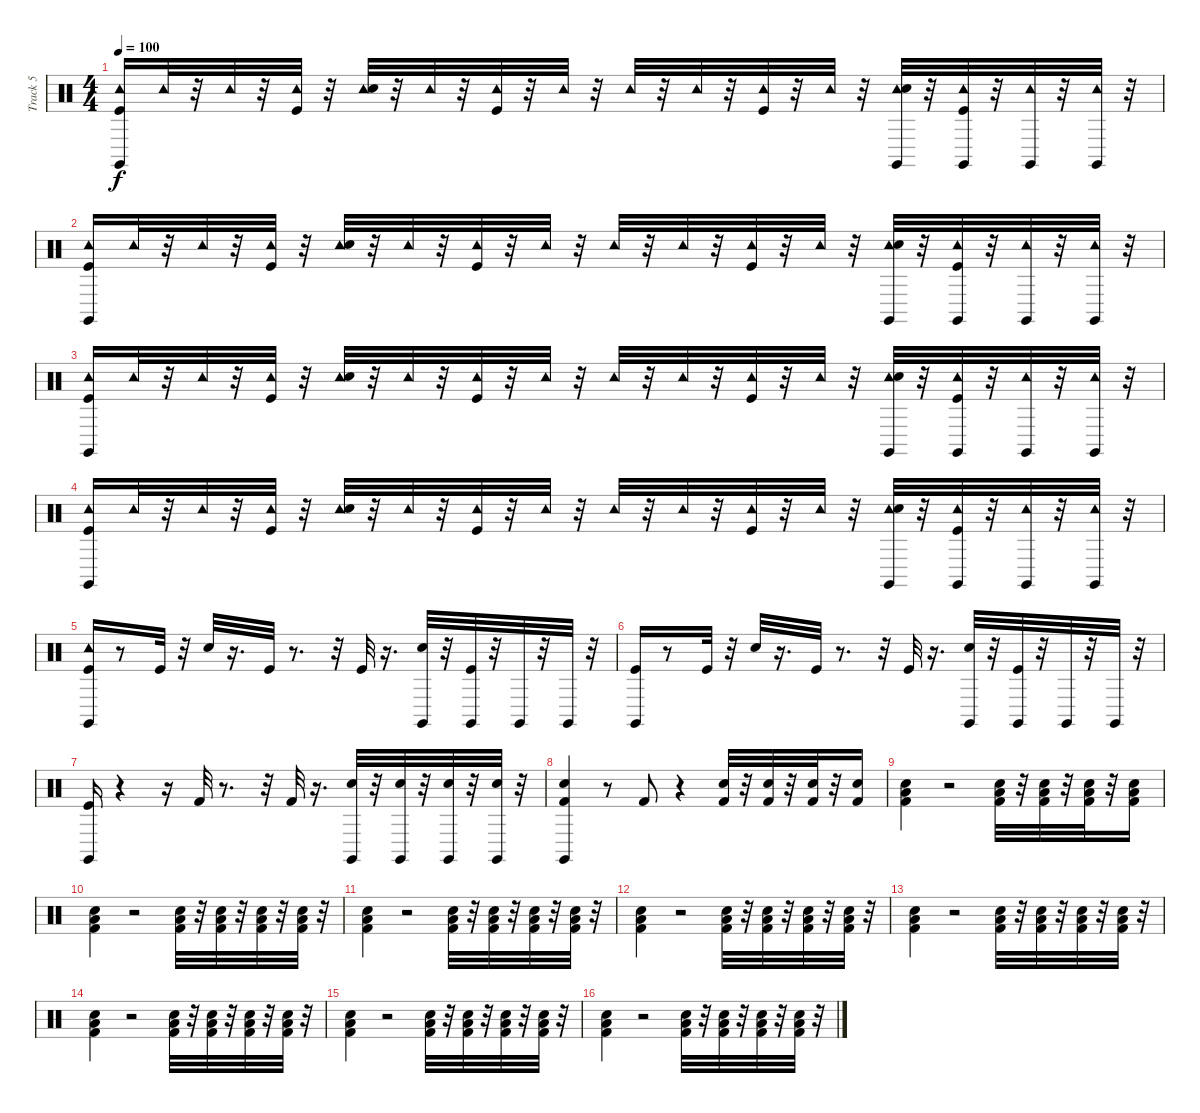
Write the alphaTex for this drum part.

\track ("Track 5" "Track 5") {instrument percussion}
\staff {score}
\articulation defaults
\ts (4 4)
\tempo 100
\clef neutral
\ks c
("Tambourine (hit)" "Claves (hit)" "Kick (hit)").16{dy f} "Tambourine (hit)".32 r.32 "Tambourine (hit)".32 r.32 ("Tambourine (hit)" "Kick (hit)").32 r.32 ("Tambourine (hit)" "Snare (hit) 2").32 r.32 "Tambourine (hit)".32 r.32 ("Tambourine (hit)" "Kick (hit)").32 r.32 "Tambourine (hit)".32 r.32 "Tambourine (hit)".32 r.32 "Tambourine (hit)".32 r.32 ("Tambourine (hit)" "Kick (hit)").32 r.32 "Tambourine (hit)".32 r.32 ("Tambourine (hit)" "Claves (hit)" "Snare (hit) 2").32 r.32 ("Tambourine (hit)" "Claves (hit)" "Kick (hit)").32 r.32 ("Tambourine (hit)" "Claves (hit)").32 r.32 ("Tambourine (hit)" "Claves (hit)").32 r.32 |
("Tambourine (hit)" "Claves (hit)" "Kick (hit)").16 "Tambourine (hit)".32 r.32 "Tambourine (hit)".32 r.32 ("Tambourine (hit)" "Kick (hit)").32 r.32 ("Tambourine (hit)" "Snare (hit) 2").32 r.32 "Tambourine (hit)".32 r.32 ("Tambourine (hit)" "Kick (hit)").32 r.32 "Tambourine (hit)".32 r.32 "Tambourine (hit)".32 r.32 "Tambourine (hit)".32 r.32 ("Tambourine (hit)" "Kick (hit)").32 r.32 "Tambourine (hit)".32 r.32 ("Tambourine (hit)" "Claves (hit)" "Snare (hit) 2").32 r.32 ("Tambourine (hit)" "Claves (hit)" "Kick (hit)").32 r.32 ("Tambourine (hit)" "Claves (hit)").32 r.32 ("Tambourine (hit)" "Claves (hit)").32 r.32 |
("Tambourine (hit)" "Claves (hit)" "Kick (hit)").16 "Tambourine (hit)".32 r.32 "Tambourine (hit)".32 r.32 ("Tambourine (hit)" "Kick (hit)").32 r.32 ("Tambourine (hit)" "Snare (hit) 2").32 r.32 "Tambourine (hit)".32 r.32 ("Tambourine (hit)" "Kick (hit)").32 r.32 "Tambourine (hit)".32 r.32 "Tambourine (hit)".32 r.32 "Tambourine (hit)".32 r.32 ("Tambourine (hit)" "Kick (hit)").32 r.32 "Tambourine (hit)".32 r.32 ("Tambourine (hit)" "Claves (hit)" "Snare (hit) 2").32 r.32 ("Tambourine (hit)" "Claves (hit)" "Kick (hit)").32 r.32 ("Tambourine (hit)" "Claves (hit)").32 r.32 ("Tambourine (hit)" "Claves (hit)").32 r.32 |
("Tambourine (hit)" "Claves (hit)" "Kick (hit)").16 "Tambourine (hit)".32 r.32 "Tambourine (hit)".32 r.32 ("Tambourine (hit)" "Kick (hit)").32 r.32 ("Tambourine (hit)" "Snare (hit) 2").32 r.32 "Tambourine (hit)".32 r.32 ("Tambourine (hit)" "Kick (hit)").32 r.32 "Tambourine (hit)".32 r.32 "Tambourine (hit)".32 r.32 "Tambourine (hit)".32 r.32 ("Tambourine (hit)" "Kick (hit)").32 r.32 "Tambourine (hit)".32 r.32 ("Tambourine (hit)" "Claves (hit)" "Snare (hit) 2").32 r.32 ("Tambourine (hit)" "Claves (hit)" "Kick (hit)").32 r.32 ("Tambourine (hit)" "Claves (hit)").32 r.32 ("Tambourine (hit)" "Claves (hit)").32 r.32 |
("Tambourine (hit)" "Claves (hit)" "Kick (hit)").16 r.8 "Kick (hit)".32 r.32 "Snare (hit) 2".32 r.16{d} "Kick (hit)".32 r.8{d} r.32 "Kick (hit)".32 r.16{d} ("Claves (hit)" "Snare (hit) 2").32 r.32 ("Claves (hit)" "Kick (hit)").32 r.32 "Claves (hit)".32 r.32 "Claves (hit)".32 r.32 |
("Claves (hit)" "Kick (hit)").16 r.8 "Kick (hit)".32 r.32 "Snare (hit) 2".32 r.16{d} "Kick (hit)".32 r.8{d} r.32 "Kick (hit)".32 r.16{d} ("Claves (hit)" "Snare (hit) 2").32 r.32 ("Kick (hit)" "Claves (hit)").32 r.32 "Claves (hit)".32 r.32 "Claves (hit)".32 r.32 |
("Kick (hit)" "Claves (hit)").16 r.4 r.16 "Kick (hit) 2".32 r.8{d} r.32 "Kick (hit) 2".32 r.16{d} ("Claves (hit)" "Snare (hit) 2").32 r.32 ("Snare (hit) 2" "Claves (hit)").32 r.32 ("Snare (hit) 2" "Claves (hit)").32 r.32 ("Snare (hit) 2" "Claves (hit)").32 r.32 |
("Snare (hit) 2" "Claves (hit)" "Kick (hit) 2").4 r.8 "Kick (hit) 2".8 r.4 ("Kick (hit) 2" "Snare (hit) 2").32 r.32 ("Kick (hit) 2" "Snare (hit) 2").32 r.32 ("Kick (hit) 2" "Snare (hit) 2").32 r.32 ("Snare (hit) 2" "Kick (hit) 2").16 |
("Kick (hit) 2" "Low Floor Tom (hit)" "Snare (hit) 2").4 r.2 ("Snare (hit) 2" "Kick (hit) 2" "Low Floor Tom (hit)").32 r.32 ("Snare (hit) 2" "Kick (hit) 2" "Low Floor Tom (hit)").32 r.32 ("Snare (hit) 2" "Kick (hit) 2" "Low Floor Tom (hit)").32 r.32 ("Low Floor Tom (hit)" "Snare (hit) 2" "Kick (hit) 2").16 |
("Snare (hit) 2" "Kick (hit) 2" "Low Floor Tom (hit)").4 r.2 ("Snare (hit) 2" "Kick (hit) 2" "Low Floor Tom (hit)").32 r.32 ("Snare (hit) 2" "Kick (hit) 2" "Low Floor Tom (hit)").32 r.32 ("Snare (hit) 2" "Kick (hit) 2" "Low Floor Tom (hit)").32 r.32 ("Snare (hit) 2" "Kick (hit) 2" "Low Floor Tom (hit)").32 r.32 |
("Snare (hit) 2" "Kick (hit) 2" "Low Floor Tom (hit)").4 r.2 ("Snare (hit) 2" "Kick (hit) 2" "Low Floor Tom (hit)").32 r.32 ("Snare (hit) 2" "Kick (hit) 2" "Low Floor Tom (hit)").32 r.32 ("Snare (hit) 2" "Kick (hit) 2" "Low Floor Tom (hit)").32 r.32 ("Snare (hit) 2" "Kick (hit) 2" "Low Floor Tom (hit)").32 r.32 |
("Snare (hit) 2" "Low Floor Tom (hit)" "Kick (hit) 2").4 r.2 ("Snare (hit) 2" "Kick (hit) 2" "Low Floor Tom (hit)").32 r.32 ("Snare (hit) 2" "Kick (hit) 2" "Low Floor Tom (hit)").32 r.32 ("Snare (hit) 2" "Kick (hit) 2" "Low Floor Tom (hit)").32 r.32 ("Snare (hit) 2" "Kick (hit) 2" "Low Floor Tom (hit)").32 r.32 |
("Kick (hit) 2" "Low Floor Tom (hit)" "Snare (hit) 2").4 r.2 ("Snare (hit) 2" "Kick (hit) 2" "Low Floor Tom (hit)").32 r.32 ("Snare (hit) 2" "Kick (hit) 2" "Low Floor Tom (hit)").32 r.32 ("Snare (hit) 2" "Kick (hit) 2" "Low Floor Tom (hit)").32 r.32 ("Snare (hit) 2" "Kick (hit) 2" "Low Floor Tom (hit)").32 r.32 |
("Low Floor Tom (hit)" "Snare (hit) 2" "Kick (hit) 2").4 r.2 ("Snare (hit) 2" "Kick (hit) 2" "Low Floor Tom (hit)").32 r.32 ("Snare (hit) 2" "Kick (hit) 2" "Low Floor Tom (hit)").32 r.32 ("Snare (hit) 2" "Kick (hit) 2" "Low Floor Tom (hit)").32 r.32 ("Snare (hit) 2" "Kick (hit) 2" "Low Floor Tom (hit)").32 r.32 |
("Kick (hit) 2" "Low Floor Tom (hit)" "Snare (hit) 2").4 r.2 ("Snare (hit) 2" "Kick (hit) 2" "Low Floor Tom (hit)").32 r.32 ("Snare (hit) 2" "Kick (hit) 2" "Low Floor Tom (hit)").32 r.32 ("Snare (hit) 2" "Kick (hit) 2" "Low Floor Tom (hit)").32 r.32 ("Snare (hit) 2" "Kick (hit) 2" "Low Floor Tom (hit)").32 r.32 |
("Snare (hit) 2" "Low Floor Tom (hit)" "Kick (hit) 2").4 r.2 ("Snare (hit) 2" "Kick (hit) 2" "Low Floor Tom (hit)").32 r.32 ("Snare (hit) 2" "Kick (hit) 2" "Low Floor Tom (hit)").32 r.32 ("Snare (hit) 2" "Kick (hit) 2" "Low Floor Tom (hit)").32 r.32 ("Snare (hit) 2" "Kick (hit) 2" "Low Floor Tom (hit)").32 r.32
